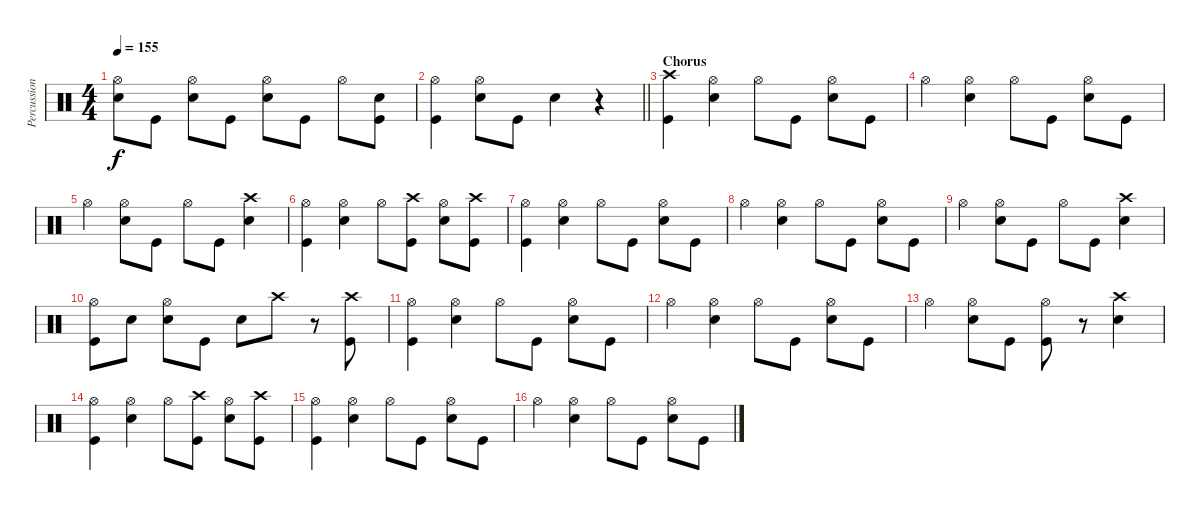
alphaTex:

\track ("Percussion" "Percussion") {instrument percussion}
\staff {score}
\articulation defaults
\ts (4 4)
\tempo 155
\clef neutral
\ks c
("Hi-Hat (open)" "Snare (hit) 2").8{dy f} "Kick (hit)".8 ("Hi-Hat (open)" "Snare (hit) 2").8 "Kick (hit)".8 ("Hi-Hat (open)" "Snare (hit) 2").8 "Kick (hit)".8 "Hi-Hat (open)".8 ("Snare (hit) 2" "Kick (hit)").8 |
\barLineRight lightlight
("Hi-Hat (open)" "Kick (hit)").4 ("Hi-Hat (open)" "Snare (hit) 2").8 "Kick (hit)".8 "Snare (hit) 2".4 r.4 |
\section ("" "Chorus")
("Crash high (hit)" "Kick (hit)").4 ("Hi-Hat (open)" "Snare (hit) 2").4 "Hi-Hat (open)".8 "Kick (hit)".8 ("Hi-Hat (open)" "Snare (hit) 2").8 "Kick (hit)".8 |
"Hi-Hat (open)".4 ("Hi-Hat (open)" "Snare (hit) 2").4 "Hi-Hat (open)".8 "Kick (hit)".8 ("Hi-Hat (open)" "Snare (hit) 2").8 "Kick (hit)".8 |
"Hi-Hat (open)".4 ("Hi-Hat (open)" "Snare (hit) 2").8 "Kick (hit)".8 "Hi-Hat (open)".8 "Kick (hit)".8 ("Crash high (hit)" "Snare (hit) 2").4 |
("Hi-Hat (open)" "Kick (hit)").4 ("Hi-Hat (open)" "Snare (hit) 2").4 "Hi-Hat (open)".8 ("Crash high (hit)" "Kick (hit)").8 ("Hi-Hat (open)" "Snare (hit) 2").8 ("Crash high (hit)" "Kick (hit)").8 |
("Hi-Hat (open)" "Kick (hit)").4 ("Hi-Hat (open)" "Snare (hit) 2").4 "Hi-Hat (open)".8 "Kick (hit)".8 ("Hi-Hat (open)" "Snare (hit) 2").8 "Kick (hit)".8 |
"Hi-Hat (open)".4 ("Hi-Hat (open)" "Snare (hit) 2").4 "Hi-Hat (open)".8 "Kick (hit)".8 ("Hi-Hat (open)" "Snare (hit) 2").8 "Kick (hit)".8 |
"Hi-Hat (open)".4 ("Hi-Hat (open)" "Snare (hit) 2").8 "Kick (hit)".8 "Hi-Hat (open)".8 "Kick (hit)".8 ("Crash high (hit)" "Snare (hit) 2").4 |
("Hi-Hat (open)" "Kick (hit)").8 "Snare (hit) 2".8 ("Hi-Hat (open)" "Snare (hit) 2").8 "Kick (hit)".8 "Snare (hit) 2".8 "Crash high (hit)".8 r.8 ("Crash high (hit)" "Kick (hit)").8 |
("Hi-Hat (open)" "Kick (hit)").4 ("Hi-Hat (open)" "Snare (hit) 2").4 "Hi-Hat (open)".8 "Kick (hit)".8 ("Hi-Hat (open)" "Snare (hit) 2").8 "Kick (hit)".8 |
"Hi-Hat (open)".4 ("Hi-Hat (open)" "Snare (hit) 2").4 "Hi-Hat (open)".8 "Kick (hit)".8 ("Hi-Hat (open)" "Snare (hit) 2").8 "Kick (hit)".8 |
"Hi-Hat (open)".4 ("Hi-Hat (open)" "Snare (hit) 2").8 "Kick (hit)".8 ("Hi-Hat (open)" "Kick (hit)").8 r.8 ("Crash high (hit)" "Snare (hit) 2").4 |
("Hi-Hat (open)" "Kick (hit)").4 ("Hi-Hat (open)" "Snare (hit) 2").4 "Hi-Hat (open)".8 ("Crash high (hit)" "Kick (hit)").8 ("Hi-Hat (open)" "Snare (hit) 2").8 ("Crash high (hit)" "Kick (hit)").8 |
("Hi-Hat (open)" "Kick (hit)").4 ("Hi-Hat (open)" "Snare (hit) 2").4 "Hi-Hat (open)".8 "Kick (hit)".8 ("Hi-Hat (open)" "Snare (hit) 2").8 "Kick (hit)".8 |
"Hi-Hat (open)".4 ("Hi-Hat (open)" "Snare (hit) 2").4 "Hi-Hat (open)".8 "Kick (hit)".8 ("Hi-Hat (open)" "Snare (hit) 2").8 "Kick (hit)".8
